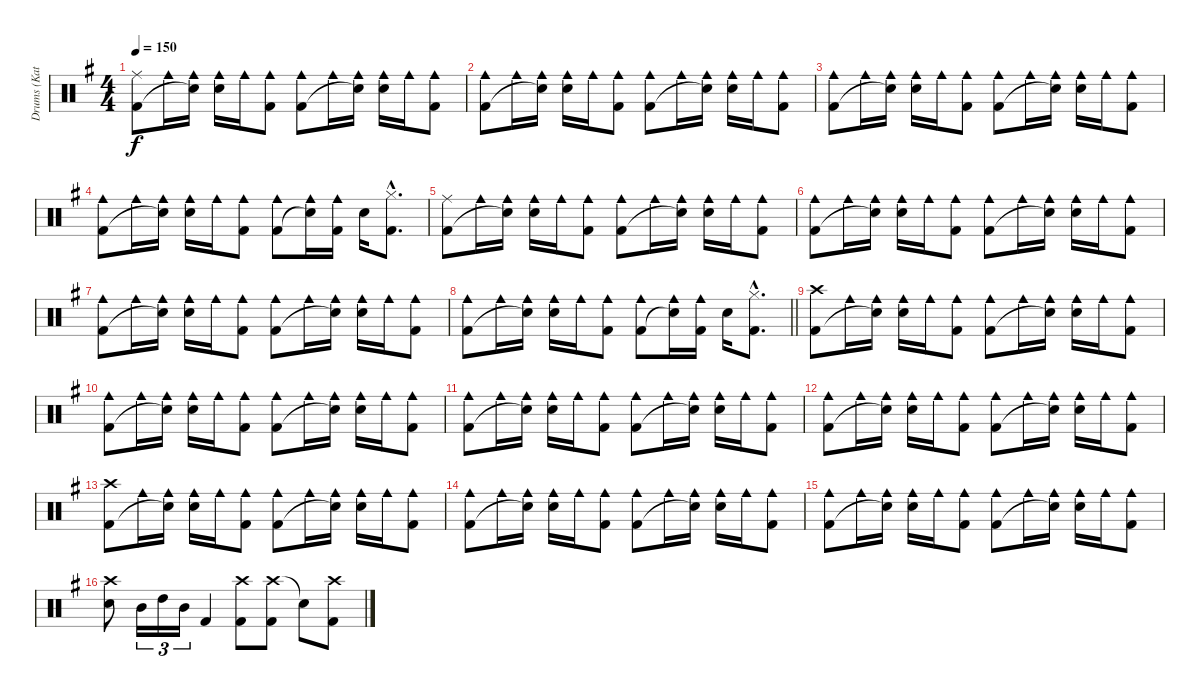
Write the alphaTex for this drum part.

\track ("Drums (Katsuji)" "Drums (Kat") {instrument percussion}
\staff {score}
\articulation defaults
\ts (4 4)
\tempo 150
\clef neutral
\ks g
("Ride (middle)" "Kick (hit) 2").8{dy f} "Cowbell medium (hit)".16 ("Cowbell medium (hit)" "Snare (hit)"{t}).16 ("Cowbell medium (hit)" "Snare (hit) 2").16 "Cowbell medium (hit)".16 ("Cowbell medium (hit)" "Kick (hit) 2").8 ("Cowbell medium (hit)" "Kick (hit) 2").8 "Cowbell medium (hit)".16 ("Cowbell medium (hit)" "Snare (hit)"{t}).16 ("Cowbell medium (hit)" "Snare (hit) 2").16 "Cowbell medium (hit)".16 ("Cowbell medium (hit)" "Kick (hit) 2").8 |
("Cowbell medium (hit)" "Kick (hit) 2").8 "Cowbell medium (hit)".16 ("Cowbell medium (hit)" "Snare (hit)"{t}).16 ("Cowbell medium (hit)" "Snare (hit) 2").16 "Cowbell medium (hit)".16 ("Cowbell medium (hit)" "Kick (hit) 2").8 ("Cowbell medium (hit)" "Kick (hit) 2").8 "Cowbell medium (hit)".16 ("Cowbell medium (hit)" "Snare (hit)"{t}).16 ("Cowbell medium (hit)" "Snare (hit) 2").16 "Cowbell medium (hit)".16 ("Cowbell medium (hit)" "Kick (hit) 2").8 |
("Cowbell medium (hit)" "Kick (hit) 2").8 "Cowbell medium (hit)".16 ("Cowbell medium (hit)" "Snare (hit)"{t}).16 ("Cowbell medium (hit)" "Snare (hit) 2").16 "Cowbell medium (hit)".16 ("Cowbell medium (hit)" "Kick (hit) 2").8 ("Cowbell medium (hit)" "Kick (hit) 2").8 "Cowbell medium (hit)".16 ("Cowbell medium (hit)" "Snare (hit)"{t}).16 ("Cowbell medium (hit)" "Snare (hit) 2").16 "Cowbell medium (hit)".16 ("Cowbell medium (hit)" "Kick (hit) 2").8 |
("Cowbell medium (hit)" "Kick (hit) 2").8 "Cowbell medium (hit)".16 ("Cowbell medium (hit)" "Snare (hit)"{t}).16 ("Cowbell medium (hit)" "Snare (hit) 2").16 "Cowbell medium (hit)".16 ("Cowbell medium (hit)" "Kick (hit) 2").8 ("Cowbell medium (hit)" "Kick (hit) 2").8 ("Cowbell medium (hit)" "Snare (hit)"{t}).16 ("Cowbell medium (hit)" "Kick (hit) 2").16 "Snare (hit) 2".16 ("Hi-Hat (closed)"{hac} "Kick (hit) 2"{hac}).8{d} |
("Ride (middle)" "Kick (hit) 2").8 "Cowbell medium (hit)".16 ("Cowbell medium (hit)" "Snare (hit)"{t}).16 ("Cowbell medium (hit)" "Snare (hit) 2").16 "Cowbell medium (hit)".16 ("Cowbell medium (hit)" "Kick (hit) 2").8 ("Cowbell medium (hit)" "Kick (hit) 2").8 "Cowbell medium (hit)".16 ("Cowbell medium (hit)" "Snare (hit)"{t}).16 ("Cowbell medium (hit)" "Snare (hit) 2").16 "Cowbell medium (hit)".16 ("Cowbell medium (hit)" "Kick (hit) 2").8 |
("Cowbell medium (hit)" "Kick (hit) 2").8 "Cowbell medium (hit)".16 ("Cowbell medium (hit)" "Snare (hit)"{t}).16 ("Cowbell medium (hit)" "Snare (hit) 2").16 "Cowbell medium (hit)".16 ("Cowbell medium (hit)" "Kick (hit) 2").8 ("Cowbell medium (hit)" "Kick (hit) 2").8 "Cowbell medium (hit)".16 ("Cowbell medium (hit)" "Snare (hit)"{t}).16 ("Cowbell medium (hit)" "Snare (hit) 2").16 "Cowbell medium (hit)".16 ("Cowbell medium (hit)" "Kick (hit) 2").8 |
("Cowbell medium (hit)" "Kick (hit) 2").8 "Cowbell medium (hit)".16 ("Cowbell medium (hit)" "Snare (hit)"{t}).16 ("Cowbell medium (hit)" "Snare (hit) 2").16 "Cowbell medium (hit)".16 ("Cowbell medium (hit)" "Kick (hit) 2").8 ("Cowbell medium (hit)" "Kick (hit) 2").8 "Cowbell medium (hit)".16 ("Cowbell medium (hit)" "Snare (hit)"{t}).16 ("Cowbell medium (hit)" "Snare (hit) 2").16 "Cowbell medium (hit)".16 ("Cowbell medium (hit)" "Kick (hit) 2").8 |
\barLineRight lightlight
("Cowbell medium (hit)" "Kick (hit) 2").8 "Cowbell medium (hit)".16 ("Cowbell medium (hit)" "Snare (hit)"{t}).16 ("Cowbell medium (hit)" "Snare (hit) 2").16 "Cowbell medium (hit)".16 ("Cowbell medium (hit)" "Kick (hit) 2").8 ("Cowbell medium (hit)" "Kick (hit) 2").8 ("Cowbell medium (hit)" "Snare (hit)"{t}).16 ("Cowbell medium (hit)" "Kick (hit) 2").16 "Snare (hit) 2".16 ("Hi-Hat (closed)"{hac} "Kick (hit) 2"{hac}).8{d} |
("Crash high (hit)" "Kick (hit) 2").8 "Cowbell medium (hit)".16 ("Cowbell medium (hit)" "Snare (hit)"{t}).16 ("Cowbell medium (hit)" "Snare (hit) 2").16 "Cowbell medium (hit)".16 ("Cowbell medium (hit)" "Kick (hit) 2").8 ("Cowbell medium (hit)" "Kick (hit) 2").8 "Cowbell medium (hit)".16 ("Cowbell medium (hit)" "Snare (hit)"{t}).16 ("Cowbell medium (hit)" "Snare (hit) 2").16 "Cowbell medium (hit)".16 ("Cowbell medium (hit)" "Kick (hit) 2").8 |
("Cowbell medium (hit)" "Kick (hit) 2").8 "Cowbell medium (hit)".16 ("Cowbell medium (hit)" "Snare (hit)"{t}).16 ("Cowbell medium (hit)" "Snare (hit) 2").16 "Cowbell medium (hit)".16 ("Cowbell medium (hit)" "Kick (hit) 2").8 ("Cowbell medium (hit)" "Kick (hit) 2").8 "Cowbell medium (hit)".16 ("Cowbell medium (hit)" "Snare (hit)"{t}).16 ("Cowbell medium (hit)" "Snare (hit) 2").16 "Cowbell medium (hit)".16 ("Cowbell medium (hit)" "Kick (hit) 2").8 |
("Cowbell medium (hit)" "Kick (hit) 2").8 "Cowbell medium (hit)".16 ("Cowbell medium (hit)" "Snare (hit)"{t}).16 ("Cowbell medium (hit)" "Snare (hit) 2").16 "Cowbell medium (hit)".16 ("Cowbell medium (hit)" "Kick (hit) 2").8 ("Cowbell medium (hit)" "Kick (hit) 2").8 "Cowbell medium (hit)".16 ("Cowbell medium (hit)" "Snare (hit)"{t}).16 ("Cowbell medium (hit)" "Snare (hit) 2").16 "Cowbell medium (hit)".16 ("Cowbell medium (hit)" "Kick (hit) 2").8 |
("Cowbell medium (hit)" "Kick (hit) 2").8 "Cowbell medium (hit)".16 ("Cowbell medium (hit)" "Snare (hit)"{t}).16 ("Cowbell medium (hit)" "Snare (hit) 2").16 "Cowbell medium (hit)".16 ("Cowbell medium (hit)" "Kick (hit) 2").8 ("Cowbell medium (hit)" "Kick (hit) 2").8 "Cowbell medium (hit)".16 ("Cowbell medium (hit)" "Snare (hit)"{t}).16 ("Cowbell medium (hit)" "Snare (hit) 2").16 "Cowbell medium (hit)".16 ("Cowbell medium (hit)" "Kick (hit) 2").8 |
("Crash high (hit)" "Kick (hit) 2").8 "Cowbell medium (hit)".16 ("Cowbell medium (hit)" "Snare (hit)"{t}).16 ("Cowbell medium (hit)" "Snare (hit) 2").16 "Cowbell medium (hit)".16 ("Cowbell medium (hit)" "Kick (hit) 2").8 ("Cowbell medium (hit)" "Kick (hit) 2").8 "Cowbell medium (hit)".16 ("Cowbell medium (hit)" "Snare (hit)"{t}).16 ("Cowbell medium (hit)" "Snare (hit) 2").16 "Cowbell medium (hit)".16 ("Cowbell medium (hit)" "Kick (hit) 2").8 |
("Cowbell medium (hit)" "Kick (hit) 2").8 "Cowbell medium (hit)".16 ("Cowbell medium (hit)" "Snare (hit)"{t}).16 ("Cowbell medium (hit)" "Snare (hit) 2").16 "Cowbell medium (hit)".16 ("Cowbell medium (hit)" "Kick (hit) 2").8 ("Cowbell medium (hit)" "Kick (hit) 2").8 "Cowbell medium (hit)".16 ("Cowbell medium (hit)" "Snare (hit)"{t}).16 ("Cowbell medium (hit)" "Snare (hit) 2").16 "Cowbell medium (hit)".16 ("Cowbell medium (hit)" "Kick (hit) 2").8 |
("Cowbell medium (hit)" "Kick (hit) 2").8 "Cowbell medium (hit)".16 ("Cowbell medium (hit)" "Snare (hit)"{t}).16 ("Cowbell medium (hit)" "Snare (hit) 2").16 "Cowbell medium (hit)".16 ("Cowbell medium (hit)" "Kick (hit) 2").8 ("Cowbell medium (hit)" "Kick (hit) 2").8 "Cowbell medium (hit)".16 ("Cowbell medium (hit)" "Snare (hit)"{t}).16 ("Cowbell medium (hit)" "Snare (hit) 2").16 "Cowbell medium (hit)".16 ("Cowbell medium (hit)" "Kick (hit) 2").8 |
("Crash high (hit)" "Snare (hit) 2").8 "Mid Tom (hit)".16{tu (3 2)} "High Tom (hit)".16{tu (3 2)} "Mid Tom (hit)".16{tu (3 2)} "Kick (hit) 2".4 ("Crash high (hit)" "Kick (hit) 2").8 ("Crash high (hit)" "Kick (hit) 2").8 "Snare (hit)"{t}.8 ("Crash high (hit)" "Kick (hit) 2").8
